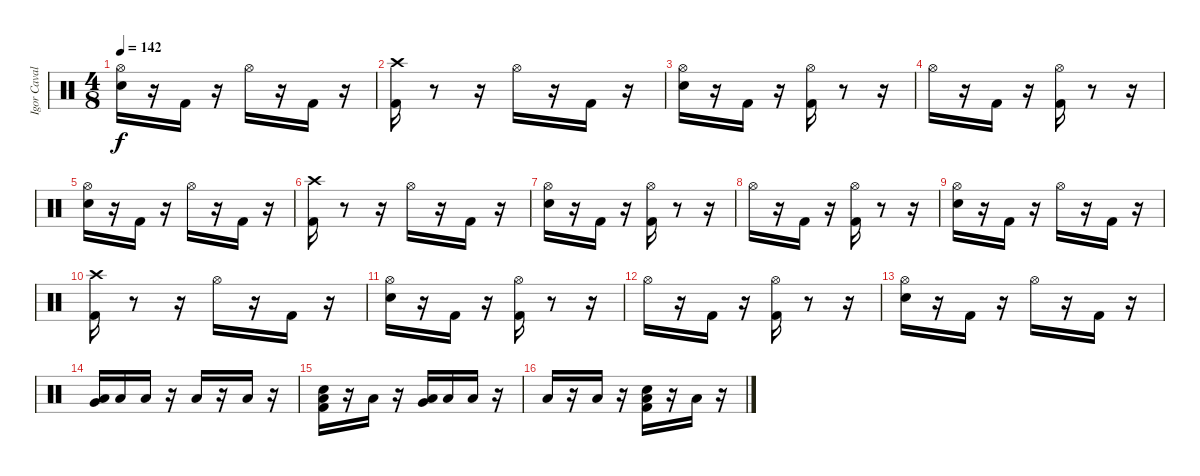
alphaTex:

\track ("Igor Cavalera" "Igor Caval") {instrument percussion}
\staff {score}
\articulation defaults
\ts (4 8)
\tempo 142
\clef neutral
\ks c
("Hi-Hat (open)" "Electric Snare (hit)").16{dy f} r.16 "Kick (hit) 2".16 r.16 "Hi-Hat (open)".16 r.16 "Kick (hit) 2".16 r.16 |
("Crash high (hit)" "Kick (hit) 2").16 r.8 r.16 "Hi-Hat (open)".16 r.16 "Kick (hit) 2".16 r.16 |
("Electric Snare (hit)" "Hi-Hat (open)").16 r.16 "Kick (hit) 2".16 r.16 ("Hi-Hat (open)" "Kick (hit) 2").16 r.8 r.16 |
"Hi-Hat (open)".16 r.16 "Kick (hit) 2".16 r.16 ("Hi-Hat (open)" "Kick (hit) 2").16 r.8 r.16 |
("Hi-Hat (open)" "Electric Snare (hit)").16 r.16 "Kick (hit) 2".16 r.16 "Hi-Hat (open)".16 r.16 "Kick (hit) 2".16 r.16 |
("Crash high (hit)" "Kick (hit) 2").16 r.8 r.16 "Hi-Hat (open)".16 r.16 "Kick (hit) 2".16 r.16 |
("Electric Snare (hit)" "Hi-Hat (open)").16 r.16 "Kick (hit) 2".16 r.16 ("Hi-Hat (open)" "Kick (hit) 2").16 r.8 r.16 |
"Hi-Hat (open)".16 r.16 "Kick (hit) 2".16 r.16 ("Hi-Hat (open)" "Kick (hit) 2").16 r.8 r.16 |
("Hi-Hat (open)" "Electric Snare (hit)").16 r.16 "Kick (hit) 2".16 r.16 "Hi-Hat (open)".16 r.16 "Kick (hit) 2".16 r.16 |
("Crash high (hit)" "Kick (hit) 2").16 r.8 r.16 "Hi-Hat (open)".16 r.16 "Kick (hit) 2".16 r.16 |
("Electric Snare (hit)" "Hi-Hat (open)").16 r.16 "Kick (hit) 2".16 r.16 ("Hi-Hat (open)" "Kick (hit) 2").16 r.8 r.16 |
"Hi-Hat (open)".16 r.16 "Kick (hit) 2".16 r.16 ("Hi-Hat (open)" "Kick (hit) 2").16 r.8 r.16 |
("Hi-Hat (open)" "Electric Snare (hit)").16 r.16 "Kick (hit) 2".16 r.16 "Hi-Hat (open)".16 r.16 "Kick (hit) 2".16 r.16 |
("Very Low Tom (hit)" "Low Floor Tom (hit)").16 "Low Tom (hit)".16 "Low Floor Tom (hit)".16 r.16 "Low Floor Tom (hit)".16 r.16 "Low Floor Tom (hit)".16 r.16 |
("Electric Snare (hit)" "Kick (hit) 2" "Low Floor Tom (hit)").16 r.16 "Low Floor Tom (hit)".16 r.16 ("Very Low Tom (hit)" "Low Floor Tom (hit)").16 "Low Tom (hit)".16 "Low Floor Tom (hit)".16 r.16 |
"Low Floor Tom (hit)".16 r.16 "Low Floor Tom (hit)".16 r.16 ("Electric Snare (hit)" "Kick (hit) 2" "Low Floor Tom (hit)").16 r.16 "Low Floor Tom (hit)".16 r.16
